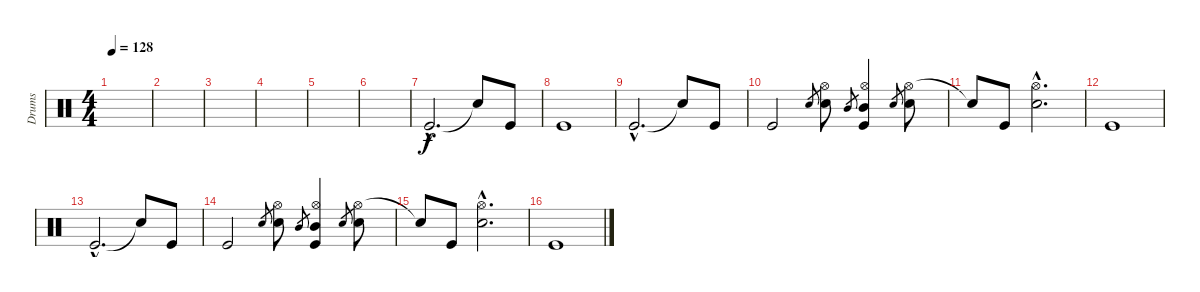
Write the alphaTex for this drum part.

\track ("Drums" "Drums") {instrument percussion}
\staff {score}
\articulation defaults
\ts (4 4)
\tempo 128
\clef neutral
\ks c
|
|
|
|
|
|
"Kick (hit)"{hac}.2{d} "Snare (hit)"{t}.8 "Kick (hit)".8 |
"Kick (hit)".1 |
"Kick (hit)"{hac}.2{d} "Snare (hit)"{t}.8 "Kick (hit)".8 |
"Kick (hit)".2 "Snare (hit) 2".8{gr} ("Hi-Hat (open)" "Snare (hit) 2").8 "Mid Tom (hit)".8{gr} ("Hi-Hat (open)" "Mid Tom (hit)" "Kick (hit)").4 "Snare (hit) 2".8{gr} ("Hi-Hat (open)" "Snare (hit) 2").8 |
"Snare (hit)"{t}.8 "Kick (hit)".8 ("Hi-Hat (open)"{hac} "Snare (hit) 2"{hac}).2{d} |
"Kick (hit)".1 |
"Kick (hit)"{hac}.2{d} "Snare (hit)"{t}.8 "Kick (hit)".8 |
"Kick (hit)".2 "Snare (hit) 2".8{gr} ("Hi-Hat (open)" "Snare (hit) 2").8 "Mid Tom (hit)".8{gr} ("Hi-Hat (open)" "Mid Tom (hit)" "Kick (hit)").4 "Snare (hit) 2".8{gr} ("Hi-Hat (open)" "Snare (hit) 2").8 |
"Snare (hit)"{t}.8 "Kick (hit)".8 ("Hi-Hat (open)"{hac} "Snare (hit) 2"{hac}).2{d} |
"Kick (hit)".1
